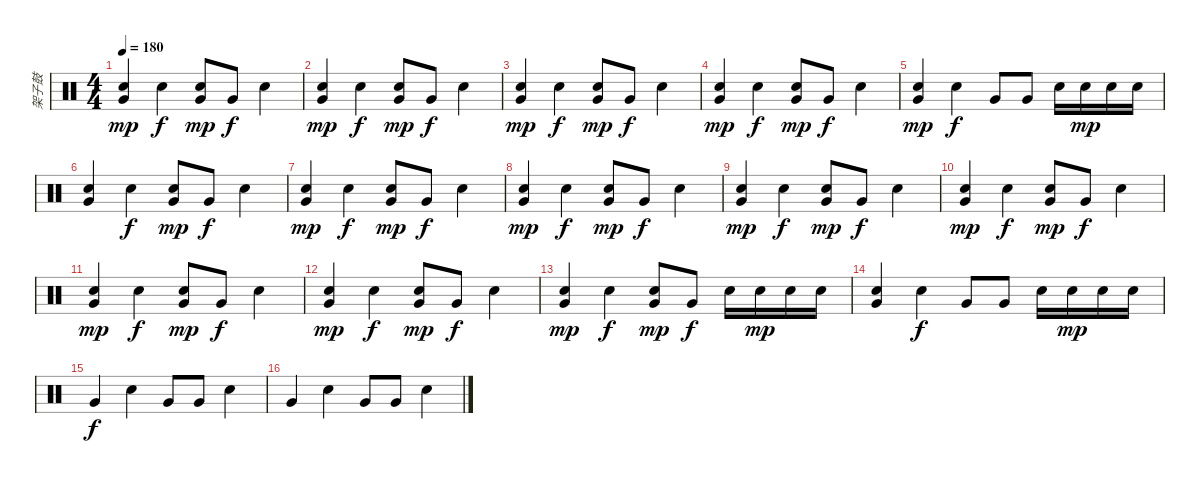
\track ("架子鼓" "架子鼓") {instrument percussion}
\staff {score}
\articulation defaults
\ts (4 4)
\tempo 180
\clef neutral
\ks c
("Electric Snare (hit)" "Very Low Tom (hit)").4{dy mp} "Electric Snare (hit)".4{dy f} ("Electric Snare (hit)" "Very Low Tom (hit)").8{dy mp} "Very Low Tom (hit)".8{dy f} "Electric Snare (hit)".4 |
("Electric Snare (hit)" "Very Low Tom (hit)").4{dy mp} "Electric Snare (hit)".4{dy f} ("Electric Snare (hit)" "Very Low Tom (hit)").8{dy mp} "Very Low Tom (hit)".8{dy f} "Electric Snare (hit)".4 |
("Electric Snare (hit)" "Very Low Tom (hit)").4{dy mp} "Electric Snare (hit)".4{dy f} ("Electric Snare (hit)" "Very Low Tom (hit)").8{dy mp} "Very Low Tom (hit)".8{dy f} "Electric Snare (hit)".4 |
("Electric Snare (hit)" "Very Low Tom (hit)").4{dy mp} "Electric Snare (hit)".4{dy f} ("Electric Snare (hit)" "Very Low Tom (hit)").8{dy mp} "Very Low Tom (hit)".8{dy f} "Electric Snare (hit)".4 |
("Electric Snare (hit)" "Very Low Tom (hit)").4{dy mp} "Electric Snare (hit)".4{dy f} "Very Low Tom (hit)".8 "Very Low Tom (hit)".8 "Electric Snare (hit)".16 "Electric Snare (hit)".16{dy mp} "Electric Snare (hit)".16 "Electric Snare (hit)".16 |
("Electric Snare (hit)" "Very Low Tom (hit)").4 "Electric Snare (hit)".4{dy f} ("Electric Snare (hit)" "Very Low Tom (hit)").8{dy mp} "Very Low Tom (hit)".8{dy f} "Electric Snare (hit)".4 |
("Electric Snare (hit)" "Very Low Tom (hit)").4{dy mp} "Electric Snare (hit)".4{dy f} ("Electric Snare (hit)" "Very Low Tom (hit)").8{dy mp} "Very Low Tom (hit)".8{dy f} "Electric Snare (hit)".4 |
("Electric Snare (hit)" "Very Low Tom (hit)").4{dy mp} "Electric Snare (hit)".4{dy f} ("Electric Snare (hit)" "Very Low Tom (hit)").8{dy mp} "Very Low Tom (hit)".8{dy f} "Electric Snare (hit)".4 |
("Electric Snare (hit)" "Very Low Tom (hit)").4{dy mp} "Electric Snare (hit)".4{dy f} ("Electric Snare (hit)" "Very Low Tom (hit)").8{dy mp} "Very Low Tom (hit)".8{dy f} "Electric Snare (hit)".4 |
("Electric Snare (hit)" "Very Low Tom (hit)").4{dy mp} "Electric Snare (hit)".4{dy f} ("Electric Snare (hit)" "Very Low Tom (hit)").8{dy mp} "Very Low Tom (hit)".8{dy f} "Electric Snare (hit)".4 |
("Electric Snare (hit)" "Very Low Tom (hit)").4{dy mp} "Electric Snare (hit)".4{dy f} ("Electric Snare (hit)" "Very Low Tom (hit)").8{dy mp} "Very Low Tom (hit)".8{dy f} "Electric Snare (hit)".4 |
("Electric Snare (hit)" "Very Low Tom (hit)").4{dy mp} "Electric Snare (hit)".4{dy f} ("Electric Snare (hit)" "Very Low Tom (hit)").8{dy mp} "Very Low Tom (hit)".8{dy f} "Electric Snare (hit)".4 |
("Electric Snare (hit)" "Very Low Tom (hit)").4{dy mp} "Electric Snare (hit)".4{dy f} ("Electric Snare (hit)" "Very Low Tom (hit)").8{dy mp} "Very Low Tom (hit)".8{dy f} "Electric Snare (hit)".16 "Electric Snare (hit)".16{dy mp} "Electric Snare (hit)".16 "Electric Snare (hit)".16 |
("Electric Snare (hit)" "Very Low Tom (hit)").4 "Electric Snare (hit)".4{dy f} "Very Low Tom (hit)".8 "Very Low Tom (hit)".8 "Electric Snare (hit)".16 "Electric Snare (hit)".16{dy mp} "Electric Snare (hit)".16 "Electric Snare (hit)".16 |
"Very Low Tom (hit)".4{dy f} "Electric Snare (hit)".4 "Very Low Tom (hit)".8 "Very Low Tom (hit)".8 "Electric Snare (hit)".4 |
"Very Low Tom (hit)".4 "Electric Snare (hit)".4 "Very Low Tom (hit)".8 "Very Low Tom (hit)".8 "Electric Snare (hit)".4
